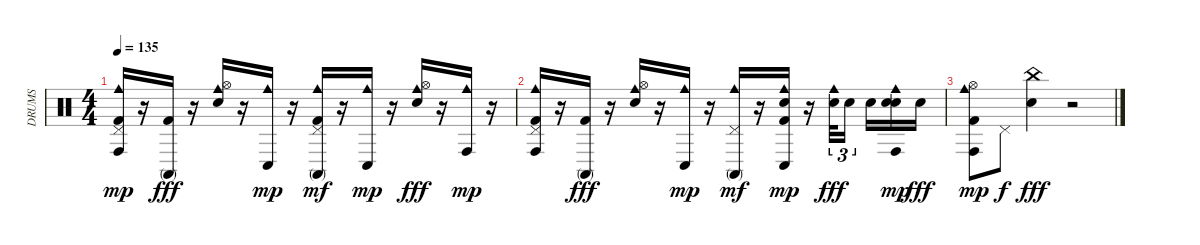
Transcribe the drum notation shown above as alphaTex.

\track ("DRUMS" "DRUMS") {instrument percussion}
\staff {score}
\articulation defaults
\ts (4 4)
\tempo 135
\clef neutral
\ks c
("Kick (hit) 2" "Pedal Hi-Hat (hit)" "Cowbell medium (hit)" "Conga high (hit)").16{dy mp} r.16 ("Kick (hit) 2" "Conga high (mute)").16{dy fff} r.16 ("Snare (hit) 2" "Hi-Hat (open)" "Cowbell medium (hit)").16 r.16 ("Cowbell medium (hit)" "Conga low (hit)").16{dy mp} r.16 ("Kick (hit) 2" "Pedal Hi-Hat (hit)" "Cowbell medium (hit)" "Conga high (mute)").16{dy mf} r.16 ("Cowbell medium (hit)" "Conga low (hit)").16{dy mp} r.16 ("Snare (hit) 2" "Hi-Hat (open)" "Cowbell medium (hit)").16{dy fff} r.16 ("Cowbell medium (hit)" "Conga high (hit)").16{dy mp} r.16 |
("Kick (hit) 2" "Pedal Hi-Hat (hit)" "Cowbell medium (hit)" "Conga high (hit)").16 r.16 ("Kick (hit) 2" "Conga high (mute)").16{dy fff} r.16 ("Snare (hit) 2" "Hi-Hat (open)" "Cowbell medium (hit)").16 r.16 ("Cowbell medium (hit)" "Conga low (hit)").16{dy mp} r.16 ("Pedal Hi-Hat (hit)" "Cowbell medium (hit)" "Conga high (mute)").16{dy mf} r.16 ("Kick (hit) 2" "Cowbell medium (hit)" "Hand Clap (hit)" "Conga low (hit)").16{dy mp} r.16 ("Snare (hit) 2" "Cowbell medium (hit)").32{tu (3 2) dy fff} "Snare (hit) 2".16{tu (3 2)} "Snare (hit) 2".16 ("Snare (hit) 2" "Cowbell medium (hit)" "Hand Clap (hit)" "Conga high (hit)").16{dy mp} "Snare (hit) 2".16{dy fff} |
("Hi-Hat (open)" "Kick (hit) 2" "Cowbell medium (hit)" "Conga high (hit)").8{dy mp} "Pedal Hi-Hat (hit)".8{dy f} ("Snare (hit) 2" "China (hit)").4{dy fff} r.2
